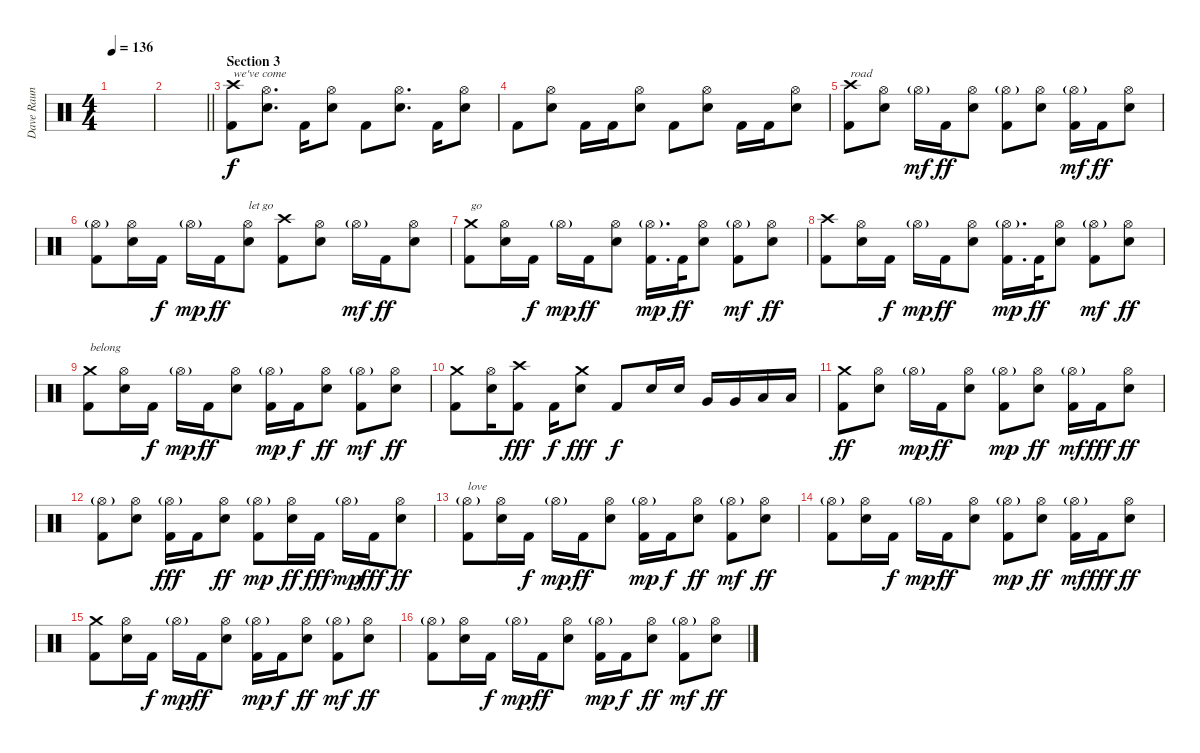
\track ("Dave Raun" "Dave Raun") {instrument percussion}
\staff {score}
\articulation defaults
\ts (4 4)
\tempo 136
\clef neutral
\ks c
|
\barLineRight lightlight
|
\section ("" "Section 3")
("Crash high (hit)" "Kick (hit) 2").8{txt "we've come"} ("Hi-Hat (open)" "Electric Snare (hit)").8{d} "Kick (hit) 2".16 ("Hi-Hat (open)" "Electric Snare (hit)").8 "Kick (hit) 2".8 ("Hi-Hat (open)" "Electric Snare (hit)").8{d} "Kick (hit) 2".16 ("Hi-Hat (open)" "Electric Snare (hit)").8 |
"Kick (hit) 2".8 ("Hi-Hat (open)" "Electric Snare (hit)").8 "Kick (hit) 2".16 "Kick (hit) 2".16 ("Hi-Hat (open)" "Electric Snare (hit)").8 "Kick (hit) 2".8 ("Hi-Hat (open)" "Electric Snare (hit)").8 "Kick (hit) 2".16 "Kick (hit) 2".16 ("Hi-Hat (open)" "Electric Snare (hit)").8 |
("Crash high (hit)" "Kick (hit) 2").8{txt "road"} ("Hi-Hat (open)" "Electric Snare (hit)").8 "Hi-Hat (open)"{g}.16{dy mf} "Kick (hit) 2".16{dy ff} ("Hi-Hat (open)" "Electric Snare (hit)").8 ("Hi-Hat (open)"{g} "Kick (hit) 2").8 ("Hi-Hat (open)" "Electric Snare (hit)").8 ("Hi-Hat (open)"{g} "Kick (hit) 2").16{dy mf} "Kick (hit) 2".16{dy ff} ("Hi-Hat (open)" "Electric Snare (hit)").8 |
("Hi-Hat (open)"{g} "Kick (hit) 2").8 ("Hi-Hat (open)" "Electric Snare (hit)").16 "Kick (hit) 2".16{dy f} "Hi-Hat (open)"{g}.16{dy mp} "Kick (hit) 2".16{dy ff} ("Hi-Hat (open)" "Electric Snare (hit)").8{txt "let go"} ("Crash high (hit)" "Kick (hit) 2").8 ("Hi-Hat (open)" "Electric Snare (hit)").8 "Hi-Hat (open)"{g}.16{dy mf} "Kick (hit) 2".16{dy ff} ("Hi-Hat (open)" "Electric Snare (hit)").8 |
("Crash medium (hit)" "Kick (hit) 2").8{txt "go"} ("Hi-Hat (open)" "Electric Snare (hit)").16 "Kick (hit) 2".16{dy f} "Hi-Hat (open)"{g}.16{dy mp} "Kick (hit) 2".16{dy ff} ("Hi-Hat (open)" "Electric Snare (hit)").8 ("Hi-Hat (open)"{g} "Kick (hit) 2").16{d dy mp} "Kick (hit) 2".32{dy ff} ("Hi-Hat (open)" "Electric Snare (hit)").8 ("Hi-Hat (open)"{g} "Kick (hit) 2").8{dy mf} ("Hi-Hat (open)" "Electric Snare (hit)").8{dy ff} |
("Crash high (hit)" "Kick (hit) 2").8 ("Hi-Hat (open)" "Electric Snare (hit)").16 "Kick (hit) 2".16{dy f} "Hi-Hat (open)"{g}.16{dy mp} "Kick (hit) 2".16{dy ff} ("Hi-Hat (open)" "Electric Snare (hit)").8 ("Hi-Hat (open)"{g} "Kick (hit) 2").16{d dy mp} "Kick (hit) 2".32{dy ff} ("Hi-Hat (open)" "Electric Snare (hit)").8 ("Hi-Hat (open)"{g} "Kick (hit) 2").8{dy mf} ("Hi-Hat (open)" "Electric Snare (hit)").8{dy ff} |
("Crash medium (hit)" "Kick (hit) 2").8{txt "belong"} ("Hi-Hat (open)" "Electric Snare (hit)").16 "Kick (hit) 2".16{dy f} "Hi-Hat (open)"{g}.16{dy mp} "Kick (hit) 2".16{dy ff} ("Hi-Hat (open)" "Electric Snare (hit)").8 ("Hi-Hat (open)"{g} "Kick (hit) 2").16{dy mp} "Kick (hit) 2".16{dy f} ("Hi-Hat (open)" "Electric Snare (hit)").8{dy ff} ("Hi-Hat (open)"{g} "Kick (hit) 2").8{dy mf} ("Hi-Hat (open)" "Electric Snare (hit)").8{dy ff} |
("Crash medium (hit)" "Kick (hit) 2").8 ("Hi-Hat (open)" "Electric Snare (hit)").16 ("Crash high (hit)" "Kick (hit) 2").8{dy fff} "Kick (hit) 2".16{dy f} ("Crash medium (hit)" "Electric Snare (hit)").8{dy fff} "Kick (hit) 2".8{dy f} "Electric Snare (hit)".16 "Electric Snare (hit)".16 "Very Low Tom (hit)".16 "Very Low Tom (hit)".16 "Low Tom (hit)".16 "Low Tom (hit)".16 |
("Crash medium (hit)" "Kick (hit) 2").8{dy ff} ("Hi-Hat (open)" "Electric Snare (hit)").8 "Hi-Hat (open)"{g}.16{dy mp} "Kick (hit) 2".16{dy ff} ("Hi-Hat (open)" "Electric Snare (hit)").8 ("Hi-Hat (open)"{g} "Kick (hit) 2").8{dy mp} ("Hi-Hat (open)" "Electric Snare (hit)").8{dy ff} ("Hi-Hat (open)"{g} "Kick (hit) 2").16{dy mf} "Kick (hit) 2".16{dy fff} ("Hi-Hat (open)" "Electric Snare (hit)").8{dy ff} |
("Hi-Hat (open)"{g} "Kick (hit) 2").8 ("Hi-Hat (open)" "Electric Snare (hit)").8 ("Hi-Hat (open)"{g} "Kick (hit) 2").16{dy fff} "Kick (hit) 2".16 ("Hi-Hat (open)" "Electric Snare (hit)").8{dy ff} ("Hi-Hat (open)"{g} "Kick (hit) 2").8{dy mp} ("Hi-Hat (open)" "Electric Snare (hit)").16{dy ff} "Kick (hit) 2".16{dy fff} "Hi-Hat (open)"{g}.16{dy mp} "Kick (hit) 2".16{dy fff} ("Hi-Hat (open)" "Electric Snare (hit)").8{dy ff} |
("Hi-Hat (open)"{g} "Kick (hit) 2").8{txt "love"} ("Hi-Hat (open)" "Electric Snare (hit)").16 "Kick (hit) 2".16{dy f} "Hi-Hat (open)"{g}.16{dy mp} "Kick (hit) 2".16{dy ff} ("Hi-Hat (open)" "Electric Snare (hit)").8 ("Hi-Hat (open)"{g} "Kick (hit) 2").16{dy mp} "Kick (hit) 2".16{dy f} ("Hi-Hat (open)" "Electric Snare (hit)").8{dy ff} ("Hi-Hat (open)"{g} "Kick (hit) 2").8{dy mf} ("Hi-Hat (open)" "Electric Snare (hit)").8{dy ff} |
("Hi-Hat (open)"{g} "Kick (hit) 2").8 ("Hi-Hat (open)" "Electric Snare (hit)").16 "Kick (hit) 2".16{dy f} "Hi-Hat (open)"{g}.16{dy mp} "Kick (hit) 2".16{dy ff} ("Hi-Hat (open)" "Electric Snare (hit)").8 ("Hi-Hat (open)"{g} "Kick (hit) 2").8{dy mp} ("Hi-Hat (open)" "Electric Snare (hit)").8{dy ff} ("Hi-Hat (open)"{g} "Kick (hit) 2").16{dy mf} "Kick (hit) 2".16{dy fff} ("Hi-Hat (open)" "Electric Snare (hit)").8{dy ff} |
("Crash medium (hit)" "Kick (hit) 2").8 ("Hi-Hat (open)" "Electric Snare (hit)").16 "Kick (hit) 2".16{dy f} "Hi-Hat (open)"{g}.16{dy mp} "Kick (hit) 2".16{dy ff} ("Hi-Hat (open)" "Electric Snare (hit)").8 ("Hi-Hat (open)"{g} "Kick (hit) 2").16{dy mp} "Kick (hit) 2".16{dy f} ("Hi-Hat (open)" "Electric Snare (hit)").8{dy ff} ("Hi-Hat (open)"{g} "Kick (hit) 2").8{dy mf} ("Hi-Hat (open)" "Electric Snare (hit)").8{dy ff} |
("Hi-Hat (open)"{g} "Kick (hit) 2").8 ("Hi-Hat (open)" "Electric Snare (hit)").16 "Kick (hit) 2".16{dy f} "Hi-Hat (open)"{g}.16{dy mp} "Kick (hit) 2".16{dy ff} ("Hi-Hat (open)" "Electric Snare (hit)").8 ("Hi-Hat (open)"{g} "Kick (hit) 2").16{dy mp} "Kick (hit) 2".16{dy f} ("Hi-Hat (open)" "Electric Snare (hit)").8{dy ff} ("Hi-Hat (open)"{g} "Kick (hit) 2").8{dy mf} ("Hi-Hat (open)" "Electric Snare (hit)").8{dy ff}
